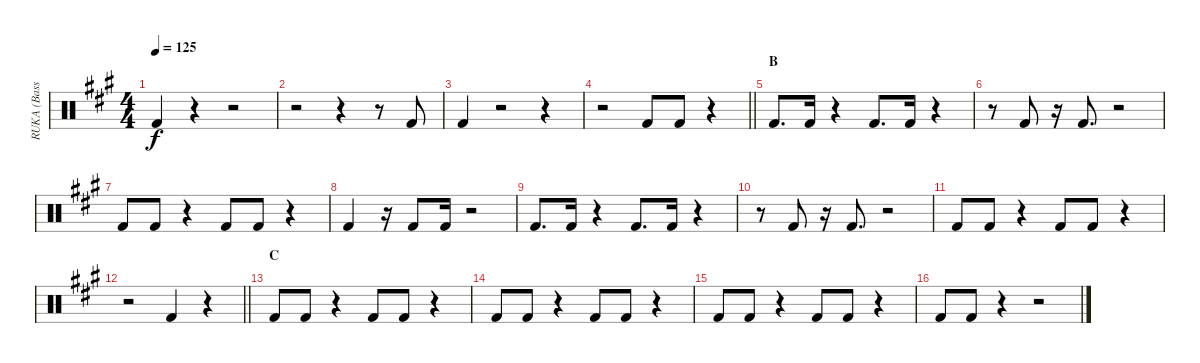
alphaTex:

\track ("RUKA (Bass Drum)" "RUKA (Bass") {instrument percussion}
\staff {score}
\articulation defaults
\ts (4 4)
\tempo 125
\clef neutral
\ks a "Kick (hit) 2".4{dy f}
r.4 r.2 |
r.2 r.4 r.8 "Kick (hit) 2".8 |
"Kick (hit) 2".4 r.2 r.4 |
\barLineRight lightlight
r.2 "Kick (hit) 2".8 "Kick (hit) 2".8 r.4 |
\section ("" "B")
"Kick (hit) 2".8{d} "Kick (hit) 2".16 r.4 "Kick (hit) 2".8{d} "Kick (hit) 2".16 r.4 |
r.8 "Kick (hit) 2".8 r.16 "Kick (hit) 2".8{d} r.2 |
"Kick (hit) 2".8 "Kick (hit) 2".8 r.4 "Kick (hit) 2".8 "Kick (hit) 2".8 r.4 |
"Kick (hit) 2".4 r.16 "Kick (hit) 2".8 "Kick (hit) 2".16 r.2 |
"Kick (hit) 2".8{d} "Kick (hit) 2".16 r.4 "Kick (hit) 2".8{d} "Kick (hit) 2".16 r.4 |
r.8 "Kick (hit) 2".8 r.16 "Kick (hit) 2".8{d} r.2 |
"Kick (hit) 2".8 "Kick (hit) 2".8 r.4 "Kick (hit) 2".8 "Kick (hit) 2".8 r.4 |
\barLineRight lightlight
r.2 "Kick (hit) 2".4 r.4 |
\section ("" "C")
"Kick (hit) 2".8 "Kick (hit) 2".8 r.4 "Kick (hit) 2".8 "Kick (hit) 2".8 r.4 |
"Kick (hit) 2".8 "Kick (hit) 2".8 r.4 "Kick (hit) 2".8 "Kick (hit) 2".8 r.4 |
"Kick (hit) 2".8 "Kick (hit) 2".8 r.4 "Kick (hit) 2".8 "Kick (hit) 2".8 r.4 |
"Kick (hit) 2".8 "Kick (hit) 2".8 r.4 r.2
